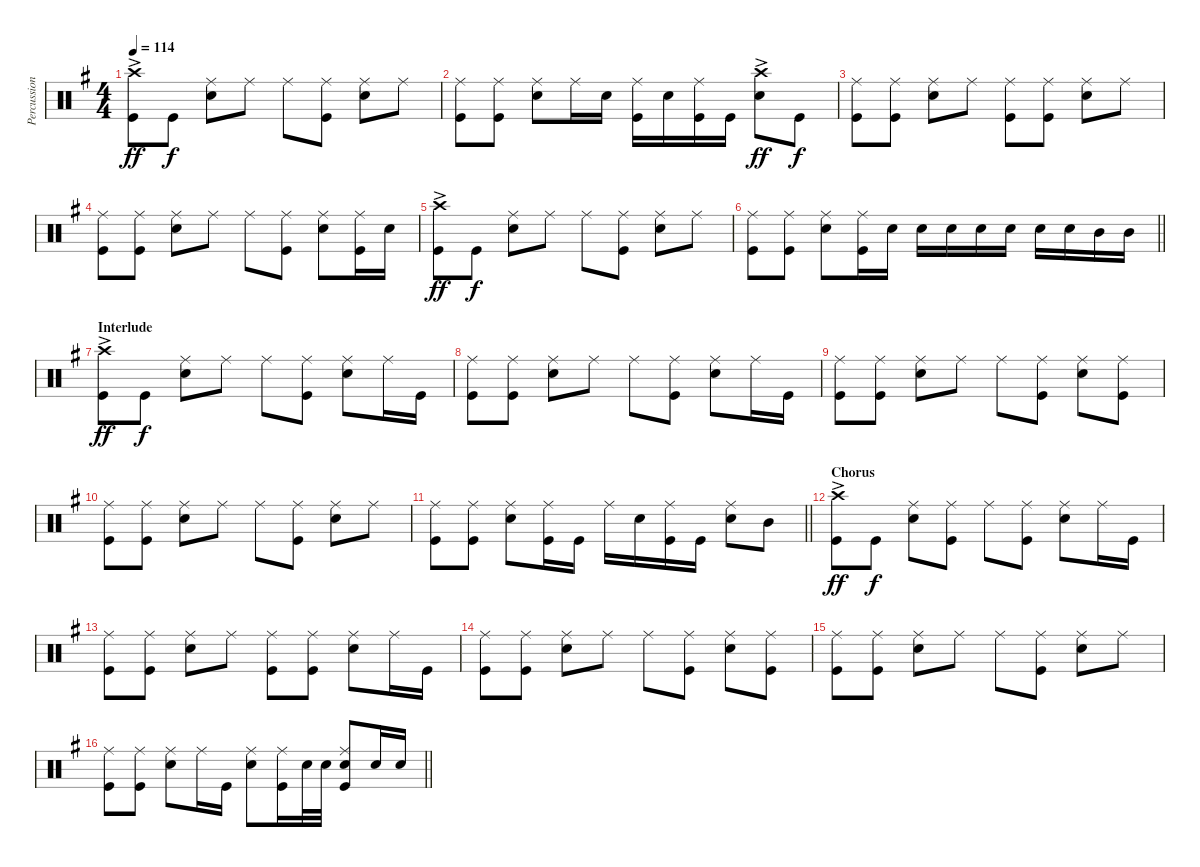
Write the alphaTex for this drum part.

\track ("Percussion" "Percussion") {instrument percussion}
\staff {score}
\articulation defaults
\ts (4 4)
\tempo 114
\clef neutral
\ks g
("Crash high (hit)"{ac} "Kick (hit)").8{dy ff} "Kick (hit)".8{dy f} ("Ride (middle)" "Snare (hit) 2").8 "Ride (middle)".8 "Ride (middle)".8 ("Ride (middle)" "Kick (hit)").8 ("Ride (middle)" "Snare (hit) 2").8 "Ride (middle)".8 |
("Ride (middle)" "Kick (hit)").8 ("Ride (middle)" "Kick (hit)").8 ("Ride (middle)" "Snare (hit) 2").8 "Ride (middle)".16 "Snare (hit) 2".16 ("Ride (middle)" "Kick (hit)").16 "Snare (hit) 2".16 ("Ride (middle)" "Kick (hit)").16 "Kick (hit)".16 ("Crash high (hit)"{ac} "Snare (hit) 2").8{dy ff} "Kick (hit)".8{dy f} |
("Ride (middle)" "Kick (hit)").8 ("Ride (middle)" "Kick (hit)").8 ("Ride (middle)" "Snare (hit) 2").8 "Ride (middle)".8 ("Ride (middle)" "Kick (hit)").8 ("Ride (middle)" "Kick (hit)").8 ("Ride (middle)" "Snare (hit) 2").8 "Ride (middle)".8 |
("Ride (middle)" "Kick (hit)").8 ("Ride (middle)" "Kick (hit)").8 ("Ride (middle)" "Snare (hit) 2").8 "Ride (middle)".8 "Ride (middle)".8 ("Ride (middle)" "Kick (hit)").8 ("Ride (middle)" "Snare (hit) 2").8 ("Ride (middle)" "Kick (hit)").16 "Snare (hit) 2".16 |
("Crash high (hit)"{ac} "Kick (hit)").8{dy ff} "Kick (hit)".8{dy f} ("Ride (middle)" "Snare (hit) 2").8 "Ride (middle)".8 "Ride (middle)".8 ("Ride (middle)" "Kick (hit)").8 ("Ride (middle)" "Snare (hit) 2").8 "Ride (middle)".8 |
\barLineRight lightlight
("Ride (middle)" "Kick (hit)").8 ("Ride (middle)" "Kick (hit)").8 ("Ride (middle)" "Snare (hit) 2").8 ("Ride (middle)" "Kick (hit)").16 "Snare (hit) 2".16 "Snare (hit) 2".16 "Snare (hit) 2".16 "Snare (hit) 2".16 "Snare (hit) 2".16 "Snare (hit) 2".16 "Snare (hit) 2".16 "Mid Tom (hit)".16 "Mid Tom (hit)".16 |
\section ("" "Interlude")
("Crash high (hit)"{ac} "Kick (hit)").8{dy ff} "Kick (hit)".8{dy f} ("Ride (middle)" "Snare (hit) 2").8 "Ride (middle)".8 "Ride (middle)".8 ("Ride (middle)" "Kick (hit)").8 ("Ride (middle)" "Snare (hit) 2").8 "Ride (middle)".16 "Kick (hit)".16 |
("Ride (middle)" "Kick (hit)").8 ("Ride (middle)" "Kick (hit)").8 ("Ride (middle)" "Snare (hit) 2").8 "Ride (middle)".8 "Ride (middle)".8 ("Ride (middle)" "Kick (hit)").8 ("Ride (middle)" "Snare (hit) 2").8 "Ride (middle)".16 "Kick (hit)".16 |
("Ride (middle)" "Kick (hit)").8 ("Ride (middle)" "Kick (hit)").8 ("Ride (middle)" "Snare (hit) 2").8 "Ride (middle)".8 "Ride (middle)".8 ("Ride (middle)" "Kick (hit)").8 ("Ride (middle)" "Snare (hit) 2").8 ("Ride (middle)" "Kick (hit)").8 |
("Ride (middle)" "Kick (hit)").8 ("Ride (middle)" "Kick (hit)").8 ("Ride (middle)" "Snare (hit) 2").8 "Ride (middle)".8 "Ride (middle)".8 ("Ride (middle)" "Kick (hit)").8 ("Ride (middle)" "Snare (hit) 2").8 "Ride (middle)".8 |
\barLineRight lightlight
("Ride (middle)" "Kick (hit)").8 ("Ride (middle)" "Kick (hit)").8 ("Ride (middle)" "Snare (hit) 2").8 ("Ride (middle)" "Kick (hit)").16 "Kick (hit)".16 "Ride (middle)".16 "Snare (hit) 2".16 ("Ride (middle)" "Kick (hit)").16 "Kick (hit)".16 ("Ride (middle)" "Snare (hit) 2").8 "Mid Tom (hit)".8 |
\section ("" "Chorus")
("Crash high (hit)"{ac} "Kick (hit)").8{dy ff} "Kick (hit)".8{dy f} ("Ride (middle)" "Snare (hit) 2").8 ("Ride (middle)" "Kick (hit)").8 "Ride (middle)".8 ("Ride (middle)" "Kick (hit)").8 ("Ride (middle)" "Snare (hit) 2").8 "Ride (middle)".16 "Kick (hit)".16 |
("Ride (middle)" "Kick (hit)").8 ("Ride (middle)" "Kick (hit)").8 ("Ride (middle)" "Snare (hit) 2").8 "Ride (middle)".8 ("Ride (middle)" "Kick (hit)").8 ("Ride (middle)" "Kick (hit)").8 ("Ride (middle)" "Snare (hit) 2").8 "Ride (middle)".16 "Kick (hit)".16 |
("Ride (middle)" "Kick (hit)").8 ("Ride (middle)" "Kick (hit)").8 ("Ride (middle)" "Snare (hit) 2").8 "Ride (middle)".8 "Ride (middle)".8 ("Ride (middle)" "Kick (hit)").8 ("Ride (middle)" "Snare (hit) 2").8 ("Ride (middle)" "Kick (hit)").8 |
("Ride (middle)" "Kick (hit)").8 ("Ride (middle)" "Kick (hit)").8 ("Ride (middle)" "Snare (hit) 2").8 "Ride (middle)".8 "Ride (middle)".8 ("Ride (middle)" "Kick (hit)").8 ("Ride (middle)" "Snare (hit) 2").8 "Ride (middle)".8 |
\barLineRight lightlight
("Ride (middle)" "Kick (hit)").8 ("Ride (middle)" "Kick (hit)").8 ("Ride (middle)" "Snare (hit) 2").8 "Ride (middle)".16 "Kick (hit)".16 ("Ride (middle)" "Snare (hit) 2").8 ("Ride (middle)" "Kick (hit)").16 "Snare (hit) 2".32 "Snare (hit) 2".32 ("Ride (middle)" "Snare (hit) 2" "Kick (hit)").8 "Snare (hit) 2".16 "Snare (hit) 2".16
